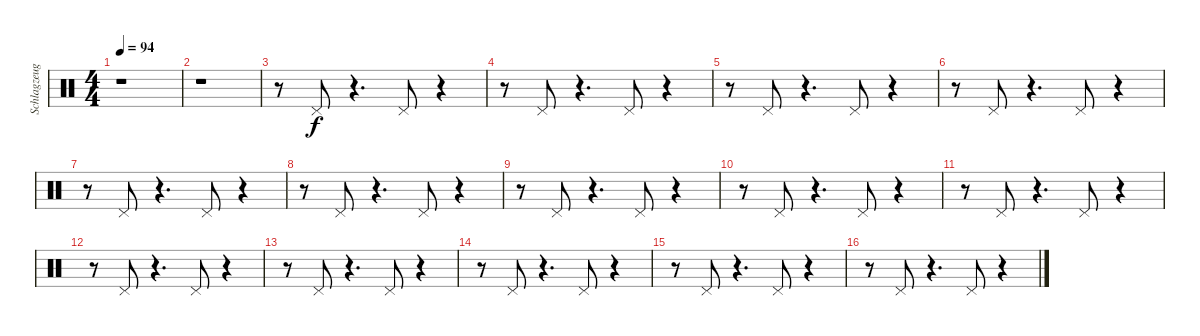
\track ("Schlagzeug" "Schlagzeug") {instrument percussion}
\staff {score}
\articulation defaults
\ts (4 4)
\tempo 94
\clef neutral
\ks c
r.1{dy f} |
r.1 |
r.8 "Pedal Hi-Hat (hit)".8 r.4{d} "Pedal Hi-Hat (hit)".8 r.4 |
r.8 "Pedal Hi-Hat (hit)".8 r.4{d} "Pedal Hi-Hat (hit)".8 r.4 |
r.8 "Pedal Hi-Hat (hit)".8 r.4{d} "Pedal Hi-Hat (hit)".8 r.4 |
r.8 "Pedal Hi-Hat (hit)".8 r.4{d} "Pedal Hi-Hat (hit)".8 r.4 |
r.8 "Pedal Hi-Hat (hit)".8 r.4{d} "Pedal Hi-Hat (hit)".8 r.4 |
r.8 "Pedal Hi-Hat (hit)".8 r.4{d} "Pedal Hi-Hat (hit)".8 r.4 |
r.8 "Pedal Hi-Hat (hit)".8 r.4{d} "Pedal Hi-Hat (hit)".8 r.4 |
r.8 "Pedal Hi-Hat (hit)".8 r.4{d} "Pedal Hi-Hat (hit)".8 r.4 |
r.8 "Pedal Hi-Hat (hit)".8 r.4{d} "Pedal Hi-Hat (hit)".8 r.4 |
r.8 "Pedal Hi-Hat (hit)".8 r.4{d} "Pedal Hi-Hat (hit)".8 r.4 |
r.8 "Pedal Hi-Hat (hit)".8 r.4{d} "Pedal Hi-Hat (hit)".8 r.4 |
r.8 "Pedal Hi-Hat (hit)".8 r.4{d} "Pedal Hi-Hat (hit)".8 r.4 |
r.8 "Pedal Hi-Hat (hit)".8 r.4{d} "Pedal Hi-Hat (hit)".8 r.4 |
r.8 "Pedal Hi-Hat (hit)".8 r.4{d} "Pedal Hi-Hat (hit)".8 r.4
